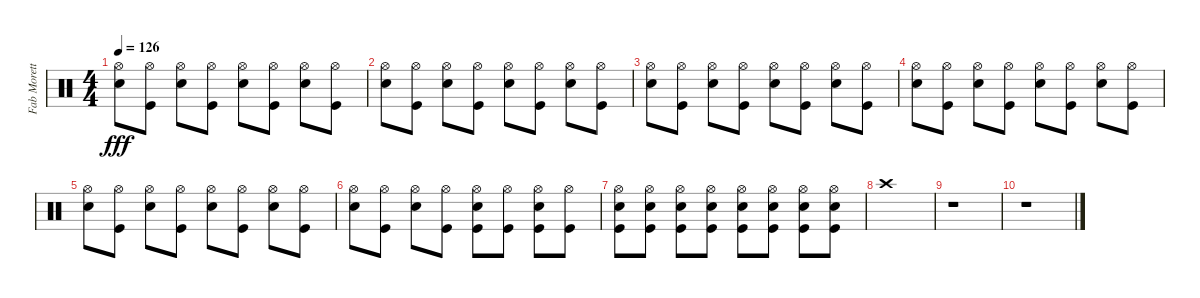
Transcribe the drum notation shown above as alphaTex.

\track ("Fab Moretti" "Fab Morett") {instrument percussion}
\staff {score}
\articulation defaults
\ts (4 4)
\tempo 126
\clef neutral
\ks c
("Hi-Hat (open)" "Snare (hit) 2").8{dy fff} ("Hi-Hat (open)" "Kick (hit)").8 ("Hi-Hat (open)" "Snare (hit) 2").8 ("Hi-Hat (open)" "Kick (hit)").8 ("Hi-Hat (open)" "Snare (hit) 2").8 ("Hi-Hat (open)" "Kick (hit)").8 ("Hi-Hat (open)" "Snare (hit) 2").8 ("Hi-Hat (open)" "Kick (hit)").8 |
("Hi-Hat (open)" "Snare (hit) 2").8 ("Hi-Hat (open)" "Kick (hit)").8 ("Hi-Hat (open)" "Snare (hit) 2").8 ("Hi-Hat (open)" "Kick (hit)").8 ("Hi-Hat (open)" "Snare (hit) 2").8 ("Hi-Hat (open)" "Kick (hit)").8 ("Hi-Hat (open)" "Snare (hit) 2").8 ("Hi-Hat (open)" "Kick (hit)").8 |
("Hi-Hat (open)" "Snare (hit) 2").8 ("Hi-Hat (open)" "Kick (hit)").8 ("Hi-Hat (open)" "Snare (hit) 2").8 ("Hi-Hat (open)" "Kick (hit)").8 ("Hi-Hat (open)" "Snare (hit) 2").8 ("Hi-Hat (open)" "Kick (hit)").8 ("Hi-Hat (open)" "Snare (hit) 2").8 ("Hi-Hat (open)" "Kick (hit)").8 |
("Hi-Hat (open)" "Snare (hit) 2").8 ("Hi-Hat (open)" "Kick (hit)").8 ("Hi-Hat (open)" "Snare (hit) 2").8 ("Hi-Hat (open)" "Kick (hit)").8 ("Hi-Hat (open)" "Snare (hit) 2").8 ("Hi-Hat (open)" "Kick (hit)").8 ("Hi-Hat (open)" "Snare (hit) 2").8 ("Hi-Hat (open)" "Kick (hit)").8 |
("Hi-Hat (open)" "Snare (hit) 2").8 ("Hi-Hat (open)" "Kick (hit)").8 ("Hi-Hat (open)" "Snare (hit) 2").8 ("Hi-Hat (open)" "Kick (hit)").8 ("Hi-Hat (open)" "Snare (hit) 2").8 ("Hi-Hat (open)" "Kick (hit)").8 ("Hi-Hat (open)" "Snare (hit) 2").8 ("Hi-Hat (open)" "Kick (hit)").8 |
("Hi-Hat (open)" "Snare (hit) 2").8 ("Hi-Hat (open)" "Kick (hit)").8 ("Hi-Hat (open)" "Snare (hit) 2").8 ("Hi-Hat (open)" "Kick (hit)").8 ("Hi-Hat (open)" "Snare (hit) 2" "Kick (hit)").8 ("Hi-Hat (open)" "Kick (hit)").8 ("Hi-Hat (open)" "Snare (hit) 2" "Kick (hit)").8 ("Hi-Hat (open)" "Kick (hit)").8 |
("Hi-Hat (open)" "Snare (hit) 2" "Kick (hit)").8 ("Hi-Hat (open)" "Snare (hit) 2" "Kick (hit)").8 ("Hi-Hat (open)" "Snare (hit) 2" "Kick (hit)").8 ("Hi-Hat (open)" "Snare (hit) 2" "Kick (hit)").8 ("Hi-Hat (open)" "Snare (hit) 2" "Kick (hit)").8 ("Hi-Hat (open)" "Snare (hit) 2" "Kick (hit)").8 ("Hi-Hat (open)" "Snare (hit) 2" "Kick (hit)").8 ("Hi-Hat (open)" "Snare (hit) 2" "Kick (hit)").8 |
"Crash high (hit)".1 |
r.1 |
r.1
